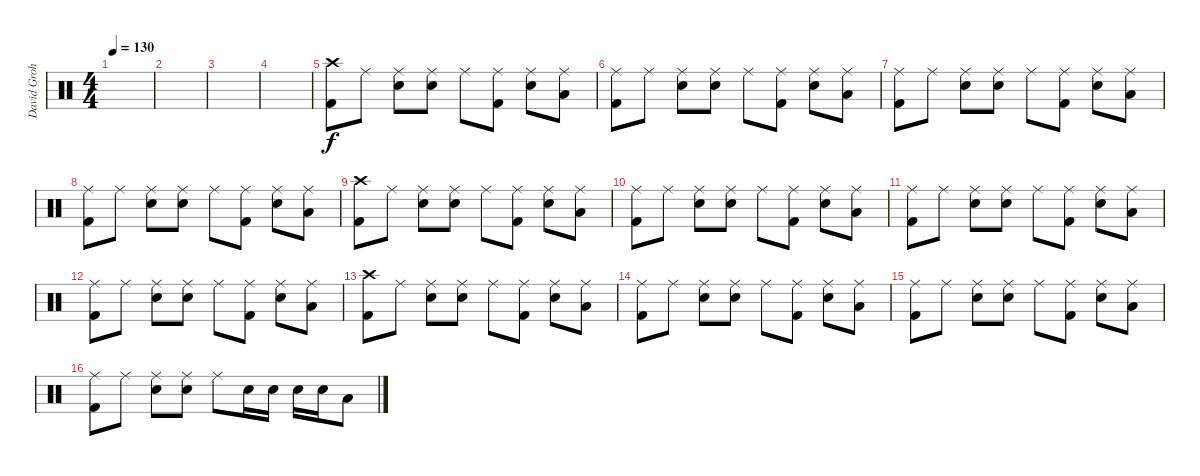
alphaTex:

\track ("David Grohl" "David Groh") {instrument percussion}
\staff {score}
\articulation defaults
\ts (4 4)
\tempo 130
\clef neutral
\ks c
|
|
|
|
("Crash high (hit)" "Kick (hit) 2").8 "Ride (middle)".8 ("Ride (middle)" "Electric Snare (hit)").8 ("Ride (middle)" "Electric Snare (hit)").8 "Ride (middle)".8 ("Ride (middle)" "Kick (hit) 2").8 ("Ride (middle)" "Electric Snare (hit)").8 ("Ride (middle)" "Low Tom (hit)").8 |
("Ride (middle)" "Kick (hit) 2").8 "Ride (middle)".8 ("Ride (middle)" "Electric Snare (hit)").8 ("Ride (middle)" "Electric Snare (hit)").8 "Ride (middle)".8 ("Ride (middle)" "Kick (hit) 2").8 ("Ride (middle)" "Electric Snare (hit)").8 ("Ride (middle)" "Low Tom (hit)").8 |
("Ride (middle)" "Kick (hit) 2").8 "Ride (middle)".8 ("Ride (middle)" "Electric Snare (hit)").8 ("Ride (middle)" "Electric Snare (hit)").8 "Ride (middle)".8 ("Ride (middle)" "Kick (hit) 2").8 ("Ride (middle)" "Electric Snare (hit)").8 ("Ride (middle)" "Low Tom (hit)").8 |
("Ride (middle)" "Kick (hit) 2").8 "Ride (middle)".8 ("Ride (middle)" "Electric Snare (hit)").8 ("Ride (middle)" "Electric Snare (hit)").8 "Ride (middle)".8 ("Ride (middle)" "Kick (hit) 2").8 ("Ride (middle)" "Electric Snare (hit)").8 ("Ride (middle)" "Low Tom (hit)").8 |
("Crash high (hit)" "Kick (hit) 2").8 "Ride (middle)".8 ("Ride (middle)" "Electric Snare (hit)").8 ("Ride (middle)" "Electric Snare (hit)").8 "Ride (middle)".8 ("Ride (middle)" "Kick (hit) 2").8 ("Ride (middle)" "Electric Snare (hit)").8 ("Ride (middle)" "Low Tom (hit)").8 |
("Ride (middle)" "Kick (hit) 2").8 "Ride (middle)".8 ("Ride (middle)" "Electric Snare (hit)").8 ("Ride (middle)" "Electric Snare (hit)").8 "Ride (middle)".8 ("Ride (middle)" "Kick (hit) 2").8 ("Ride (middle)" "Electric Snare (hit)").8 ("Ride (middle)" "Low Tom (hit)").8 |
("Ride (middle)" "Kick (hit) 2").8 "Ride (middle)".8 ("Ride (middle)" "Electric Snare (hit)").8 ("Ride (middle)" "Electric Snare (hit)").8 "Ride (middle)".8 ("Ride (middle)" "Kick (hit) 2").8 ("Ride (middle)" "Electric Snare (hit)").8 ("Ride (middle)" "Low Tom (hit)").8 |
("Ride (middle)" "Kick (hit) 2").8 "Ride (middle)".8 ("Ride (middle)" "Electric Snare (hit)").8 ("Ride (middle)" "Electric Snare (hit)").8 "Ride (middle)".8 ("Ride (middle)" "Kick (hit) 2").8 ("Ride (middle)" "Electric Snare (hit)").8 ("Ride (middle)" "Low Tom (hit)").8 |
("Crash high (hit)" "Kick (hit) 2").8 "Ride (middle)".8 ("Ride (middle)" "Electric Snare (hit)").8 ("Ride (middle)" "Electric Snare (hit)").8 "Ride (middle)".8 ("Ride (middle)" "Kick (hit) 2").8 ("Ride (middle)" "Electric Snare (hit)").8 ("Ride (middle)" "Low Tom (hit)").8 |
("Ride (middle)" "Kick (hit) 2").8 "Ride (middle)".8 ("Ride (middle)" "Electric Snare (hit)").8 ("Ride (middle)" "Electric Snare (hit)").8 "Ride (middle)".8 ("Ride (middle)" "Kick (hit) 2").8 ("Ride (middle)" "Electric Snare (hit)").8 ("Ride (middle)" "Low Tom (hit)").8 |
("Ride (middle)" "Kick (hit) 2").8 "Ride (middle)".8 ("Ride (middle)" "Electric Snare (hit)").8 ("Ride (middle)" "Electric Snare (hit)").8 "Ride (middle)".8 ("Ride (middle)" "Kick (hit) 2").8 ("Ride (middle)" "Electric Snare (hit)").8 ("Ride (middle)" "Low Tom (hit)").8 |
("Ride (middle)" "Kick (hit) 2").8 "Ride (middle)".8 ("Ride (middle)" "Electric Snare (hit)").8 ("Ride (middle)" "Electric Snare (hit)").8 "Ride (middle)".8 "Electric Snare (hit)".16 "Electric Snare (hit)".16 "Electric Snare (hit)".16 "Electric Snare (hit)".16 "Low Tom (hit)".8
